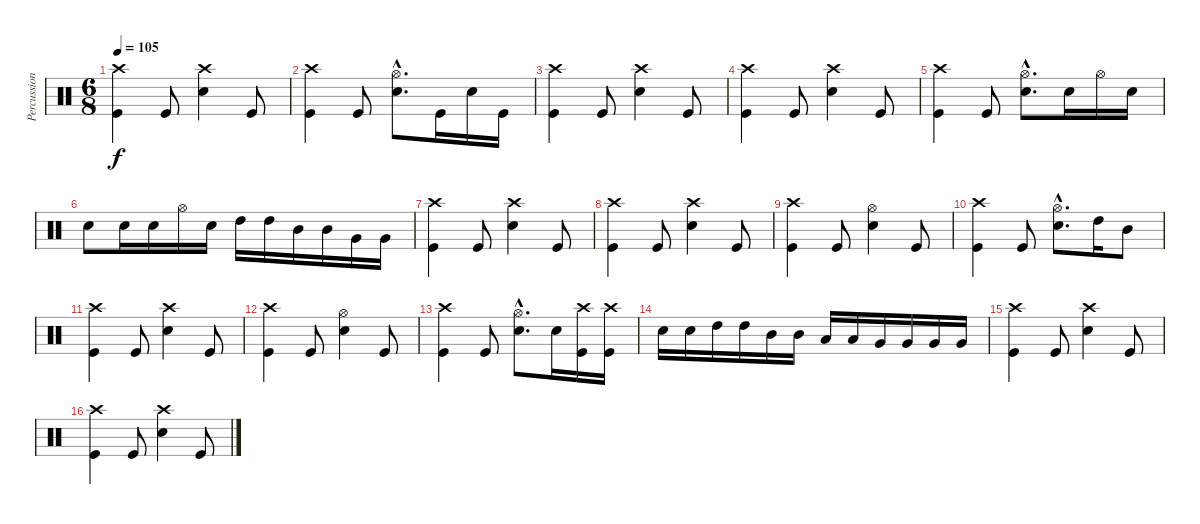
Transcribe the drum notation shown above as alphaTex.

\track ("Percussion" "Percussion") {instrument percussion}
\staff {score}
\articulation defaults
\ts (6 8)
\tempo 105
\clef neutral
\ks c
("Crash high (hit)" "Kick (hit)").4{dy f} "Kick (hit)".8 ("Crash high (hit)" "Electric Snare (hit)").4 "Kick (hit)".8 |
("Crash high (hit)" "Kick (hit)").4 "Kick (hit)".8 ("Hi-Hat (open)"{hac} "Electric Snare (hit)"{hac}).8{d} "Kick (hit)".16 "Electric Snare (hit)".16 "Kick (hit)".16 |
("Crash high (hit)" "Kick (hit)").4 "Kick (hit)".8 ("Crash high (hit)" "Electric Snare (hit)").4 "Kick (hit)".8 |
("Crash high (hit)" "Kick (hit)").4 "Kick (hit)".8 ("Crash high (hit)" "Electric Snare (hit)").4 "Kick (hit)".8 |
("Crash high (hit)" "Kick (hit)").4 "Kick (hit)".8 ("Hi-Hat (open)"{hac} "Electric Snare (hit)"{hac}).8{d} "Electric Snare (hit)".16 "Hi-Hat (open)".16 "Electric Snare (hit)".16 |
"Electric Snare (hit)".8 "Electric Snare (hit)".16 "Electric Snare (hit)".16 "Hi-Hat (open)".16 "Electric Snare (hit)".16 "High Tom (hit)".16 "High Tom (hit)".16 "Mid Tom (hit)".16 "Mid Tom (hit)".16 "Very Low Tom (hit)".16 "Very Low Tom (hit)".16 |
("Crash high (hit)" "Kick (hit)").4 "Kick (hit)".8 ("Crash high (hit)" "Electric Snare (hit)").4 "Kick (hit)".8 |
("Crash high (hit)" "Kick (hit)").4 "Kick (hit)".8 ("Crash high (hit)" "Electric Snare (hit)").4 "Kick (hit)".8 |
("Crash high (hit)" "Kick (hit)").4 "Kick (hit)".8 ("Hi-Hat (open)" "Electric Snare (hit)").4 "Kick (hit)".8 |
("Crash high (hit)" "Kick (hit)").4 "Kick (hit)".8 ("Hi-Hat (open)"{hac} "Electric Snare (hit)"{hac}).8{d} "High Tom (hit)".16 "Mid Tom (hit)".8 |
("Crash high (hit)" "Kick (hit)").4 "Kick (hit)".8 ("Crash high (hit)" "Electric Snare (hit)").4 "Kick (hit)".8 |
("Crash high (hit)" "Kick (hit)").4 "Kick (hit)".8 ("Hi-Hat (open)" "Electric Snare (hit)").4 "Kick (hit)".8 |
("Crash high (hit)" "Kick (hit)").4 "Kick (hit)".8 ("Hi-Hat (open)"{hac} "Electric Snare (hit)"{hac}).8{d} "Electric Snare (hit)".16 ("Crash high (hit)" "Kick (hit)").16 ("Crash high (hit)" "Kick (hit)").16 |
"Electric Snare (hit)".16 "Electric Snare (hit)".16 "High Tom (hit)".16 "High Tom (hit)".16 "Mid Tom (hit)".16 "Mid Tom (hit)".16 "Low Tom (hit)".16 "Low Tom (hit)".16 "Very Low Tom (hit)".16 "Very Low Tom (hit)".16 "Very Low Tom (hit)".16 "Very Low Tom (hit)".16 |
("Crash high (hit)" "Kick (hit)").4 "Kick (hit)".8 ("Crash high (hit)" "Electric Snare (hit)").4 "Kick (hit)".8 |
("Crash high (hit)" "Kick (hit)").4 "Kick (hit)".8 ("Crash high (hit)" "Electric Snare (hit)").4 "Kick (hit)".8
